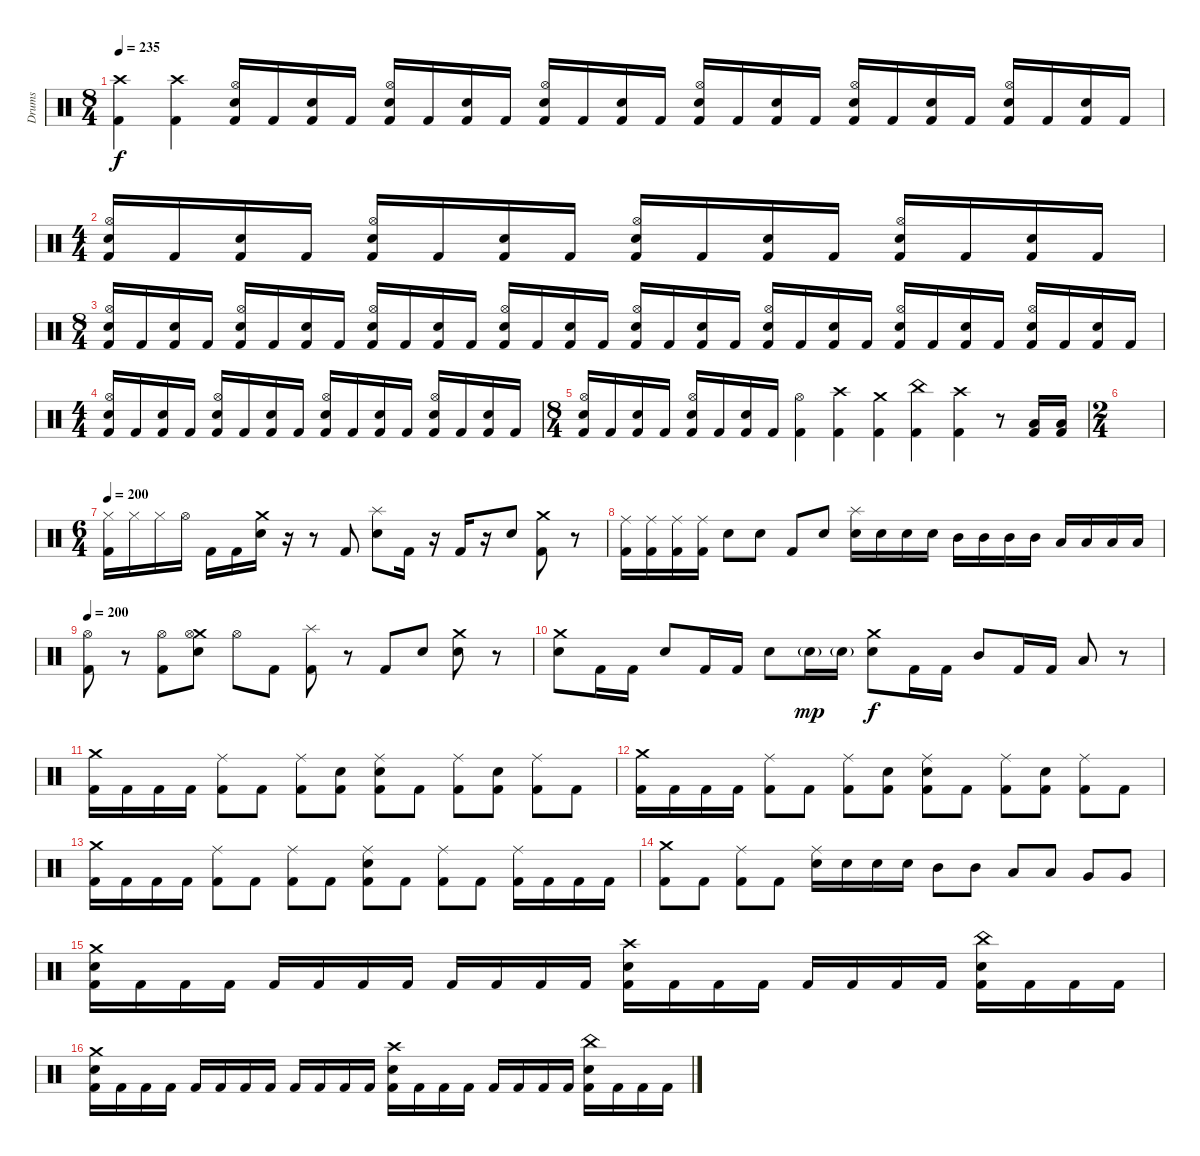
\track ("Drums" "Drums") {instrument percussion}
\staff {score}
\articulation defaults
\ts (8 4)
\tempo 235
\clef neutral
\ks c
("Crash high (hit)" "Kick (hit) 2").4{dy f} ("Crash high (hit)" "Kick (hit) 2").4 ("Hi-Hat (open)" "Electric Snare (hit)" "Kick (hit) 2").16 "Kick (hit) 2".16 ("Electric Snare (hit)" "Kick (hit) 2").16 "Kick (hit) 2".16 ("Hi-Hat (open)" "Electric Snare (hit)" "Kick (hit) 2").16 "Kick (hit) 2".16 ("Electric Snare (hit)" "Kick (hit) 2").16 "Kick (hit) 2".16 ("Hi-Hat (open)" "Electric Snare (hit)" "Kick (hit) 2").16 "Kick (hit) 2".16 ("Electric Snare (hit)" "Kick (hit) 2").16 "Kick (hit) 2".16 ("Hi-Hat (open)" "Electric Snare (hit)" "Kick (hit) 2").16 "Kick (hit) 2".16 ("Electric Snare (hit)" "Kick (hit) 2").16 "Kick (hit) 2".16 ("Hi-Hat (open)" "Electric Snare (hit)" "Kick (hit) 2").16 "Kick (hit) 2".16 ("Electric Snare (hit)" "Kick (hit) 2").16 "Kick (hit) 2".16 ("Hi-Hat (open)" "Electric Snare (hit)" "Kick (hit) 2").16 "Kick (hit) 2".16 ("Electric Snare (hit)" "Kick (hit) 2").16 "Kick (hit) 2".16 |
\ts (4 4)
("Hi-Hat (open)" "Electric Snare (hit)" "Kick (hit) 2").16 "Kick (hit) 2".16 ("Electric Snare (hit)" "Kick (hit) 2").16 "Kick (hit) 2".16 ("Hi-Hat (open)" "Electric Snare (hit)" "Kick (hit) 2").16 "Kick (hit) 2".16 ("Electric Snare (hit)" "Kick (hit) 2").16 "Kick (hit) 2".16 ("Hi-Hat (open)" "Electric Snare (hit)" "Kick (hit) 2").16 "Kick (hit) 2".16 ("Electric Snare (hit)" "Kick (hit) 2").16 "Kick (hit) 2".16 ("Hi-Hat (open)" "Electric Snare (hit)" "Kick (hit) 2").16 "Kick (hit) 2".16 ("Electric Snare (hit)" "Kick (hit) 2").16 "Kick (hit) 2".16 |
\ts (8 4)
("Hi-Hat (open)" "Electric Snare (hit)" "Kick (hit) 2").16 "Kick (hit) 2".16 ("Electric Snare (hit)" "Kick (hit) 2").16 "Kick (hit) 2".16 ("Hi-Hat (open)" "Electric Snare (hit)" "Kick (hit) 2").16 "Kick (hit) 2".16 ("Electric Snare (hit)" "Kick (hit) 2").16 "Kick (hit) 2".16 ("Hi-Hat (open)" "Electric Snare (hit)" "Kick (hit) 2").16 "Kick (hit) 2".16 ("Electric Snare (hit)" "Kick (hit) 2").16 "Kick (hit) 2".16 ("Hi-Hat (open)" "Electric Snare (hit)" "Kick (hit) 2").16 "Kick (hit) 2".16 ("Electric Snare (hit)" "Kick (hit) 2").16 "Kick (hit) 2".16 ("Hi-Hat (open)" "Electric Snare (hit)" "Kick (hit) 2").16 "Kick (hit) 2".16 ("Electric Snare (hit)" "Kick (hit) 2").16 "Kick (hit) 2".16 ("Hi-Hat (open)" "Electric Snare (hit)" "Kick (hit) 2").16 "Kick (hit) 2".16 ("Electric Snare (hit)" "Kick (hit) 2").16 "Kick (hit) 2".16 ("Hi-Hat (open)" "Electric Snare (hit)" "Kick (hit) 2").16 "Kick (hit) 2".16 ("Electric Snare (hit)" "Kick (hit) 2").16 "Kick (hit) 2".16 ("Hi-Hat (open)" "Electric Snare (hit)" "Kick (hit) 2").16 "Kick (hit) 2".16 ("Electric Snare (hit)" "Kick (hit) 2").16 "Kick (hit) 2".16 |
\ts (4 4)
("Hi-Hat (open)" "Electric Snare (hit)" "Kick (hit) 2").16 "Kick (hit) 2".16 ("Electric Snare (hit)" "Kick (hit) 2").16 "Kick (hit) 2".16 ("Hi-Hat (open)" "Electric Snare (hit)" "Kick (hit) 2").16 "Kick (hit) 2".16 ("Electric Snare (hit)" "Kick (hit) 2").16 "Kick (hit) 2".16 ("Hi-Hat (open)" "Electric Snare (hit)" "Kick (hit) 2").16 "Kick (hit) 2".16 ("Electric Snare (hit)" "Kick (hit) 2").16 "Kick (hit) 2".16 ("Hi-Hat (open)" "Electric Snare (hit)" "Kick (hit) 2").16 "Kick (hit) 2".16 ("Electric Snare (hit)" "Kick (hit) 2").16 "Kick (hit) 2".16 |
\ts (8 4)
("Hi-Hat (open)" "Electric Snare (hit)" "Kick (hit) 2").16 "Kick (hit) 2".16 ("Electric Snare (hit)" "Kick (hit) 2").16 "Kick (hit) 2".16 ("Hi-Hat (open)" "Electric Snare (hit)" "Kick (hit) 2").16 "Kick (hit) 2".16 ("Electric Snare (hit)" "Kick (hit) 2").16 "Kick (hit) 2".16 ("Hi-Hat (open)" "Kick (hit) 2").4 ("Crash high (hit)" "Kick (hit) 2").4 ("Crash medium (hit)" "Kick (hit) 2").4 ("China (hit)" "Kick (hit) 2").4 ("Crash high (hit)" "Kick (hit) 2").4 r.8 ("Low Floor Tom (hit)" "Kick (hit) 2").16 ("Low Floor Tom (hit)" "Kick (hit) 2").16 |
\ts (2 4)
|
\ts (6 4)
\tempo 200
("Hi-Hat (closed)" "Kick (hit) 2").16 "Hi-Hat (closed)".16 "Hi-Hat (closed)".16 "Hi-Hat (open)".16 "Kick (hit) 2".16 "Kick (hit) 2".16 ("Crash medium (hit)" "Electric Snare (hit)").16 r.16 r.8 "Kick (hit) 2".8 ("Splash (hit)" "Electric Snare (hit)").8 "Kick (hit) 2".16 r.16 "Kick (hit) 2".16 r.16 "Electric Snare (hit)".8 ("Crash medium (hit)" "Kick (hit) 2").8 r.8 |
("Ride (middle)" "Kick (hit) 2").16 ("Ride (middle)" "Kick (hit) 2").16 ("Ride (middle)" "Kick (hit) 2").16 ("Ride (middle)" "Kick (hit) 2").16 "Electric Snare (hit)".8 "Electric Snare (hit)".8 "Kick (hit) 2".8 "Electric Snare (hit)".8 ("Splash (hit)" "Electric Snare (hit)").16 "Electric Snare (hit)".16 "Electric Snare (hit)".16 "Electric Snare (hit)".16 "Mid Tom (hit)".16 "Mid Tom (hit)".16 "Mid Tom (hit)".16 "Mid Tom (hit)".16 "Low Tom (hit)".16 "Low Tom (hit)".16 "Low Tom (hit)".16 "Low Tom (hit)".16 |
\tempo 200
("Hi-Hat (open)" "Kick (hit) 2").8 r.8 ("Hi-Hat (open)" "Kick (hit) 2").8 ("Crash medium (hit)" "Hi-Hat (open)" "Electric Snare (hit)").8 "Hi-Hat (open)".8 "Kick (hit) 2".8 ("Splash (hit)" "Kick (hit) 2").8 r.8 "Kick (hit) 2".8 "Electric Snare (hit)".8 ("Crash medium (hit)" "Electric Snare (hit)").8 r.8 |
("Crash medium (hit)" "Electric Snare (hit)").8 "Kick (hit) 2".16 "Kick (hit) 2".16 "Electric Snare (hit)".8 "Kick (hit) 2".16 "Kick (hit) 2".16 "Electric Snare (hit)".8 "Electric Snare (hit)"{g}.16{dy mp} "Electric Snare (hit)"{g}.16 ("Crash medium (hit)" "Electric Snare (hit)").8{dy f} "Kick (hit) 2".16 "Kick (hit) 2".16 "Mid Tom (hit)".8 "Kick (hit) 2".16 "Kick (hit) 2".16 "Low Tom (hit)".8 r.8 |
("Crash medium (hit)" "Kick (hit) 2").16 "Kick (hit) 2".16 "Kick (hit) 2".16 "Kick (hit) 2".16 ("Ride (middle)" "Kick (hit) 2").8 "Kick (hit) 2".8 ("Ride (middle)" "Kick (hit) 2").8 ("Electric Snare (hit)" "Kick (hit) 2").8 ("Ride (middle)" "Electric Snare (hit)" "Kick (hit) 2").8 "Kick (hit) 2".8 ("Ride (middle)" "Kick (hit) 2").8 ("Electric Snare (hit)" "Kick (hit) 2").8 ("Ride (middle)" "Kick (hit) 2").8 "Kick (hit) 2".8 |
("Crash medium (hit)" "Kick (hit) 2").16 "Kick (hit) 2".16 "Kick (hit) 2".16 "Kick (hit) 2".16 ("Ride (middle)" "Kick (hit) 2").8 "Kick (hit) 2".8 ("Ride (middle)" "Kick (hit) 2").8 ("Electric Snare (hit)" "Kick (hit) 2").8 ("Ride (middle)" "Electric Snare (hit)" "Kick (hit) 2").8 "Kick (hit) 2".8 ("Ride (middle)" "Kick (hit) 2").8 ("Electric Snare (hit)" "Kick (hit) 2").8 ("Ride (middle)" "Kick (hit) 2").8 "Kick (hit) 2".8 |
("Crash medium (hit)" "Kick (hit) 2").16 "Kick (hit) 2".16 "Kick (hit) 2".16 "Kick (hit) 2".16 ("Ride (middle)" "Kick (hit) 2").8 "Kick (hit) 2".8 ("Ride (middle)" "Kick (hit) 2").8 "Kick (hit) 2".8 ("Ride (middle)" "Electric Snare (hit)" "Kick (hit) 2").8 "Kick (hit) 2".8 ("Ride (middle)" "Kick (hit) 2").8 "Kick (hit) 2".8 ("Ride (middle)" "Kick (hit) 2").16 "Kick (hit) 2".16 "Kick (hit) 2".16 "Kick (hit) 2".16 |
("Crash medium (hit)" "Kick (hit) 2").8 "Kick (hit) 2".8 ("Ride (middle)" "Kick (hit) 2").8 "Kick (hit) 2".8 ("Ride (middle)" "Electric Snare (hit)").16 "Electric Snare (hit)".16 "Electric Snare (hit)".16 "Electric Snare (hit)".16 "Mid Tom (hit)".8 "Mid Tom (hit)".8 "Low Tom (hit)".8 "Low Tom (hit)".8 "Very Low Tom (hit)".8 "Very Low Tom (hit)".8 |
("Crash medium (hit)" "Electric Snare (hit)" "Kick (hit) 2").16 "Kick (hit) 2".16 "Kick (hit) 2".16 "Kick (hit) 2".16 "Kick (hit) 2".16 "Kick (hit) 2".16 "Kick (hit) 2".16 "Kick (hit) 2".16 "Kick (hit) 2".16 "Kick (hit) 2".16 "Kick (hit) 2".16 "Kick (hit) 2".16 ("Crash high (hit)" "Electric Snare (hit)" "Kick (hit) 2").16 "Kick (hit) 2".16 "Kick (hit) 2".16 "Kick (hit) 2".16 "Kick (hit) 2".16 "Kick (hit) 2".16 "Kick (hit) 2".16 "Kick (hit) 2".16 ("China (hit)" "Electric Snare (hit)" "Kick (hit) 2").16 "Kick (hit) 2".16 "Kick (hit) 2".16 "Kick (hit) 2".16 |
("Crash medium (hit)" "Electric Snare (hit)" "Kick (hit) 2").16 "Kick (hit) 2".16 "Kick (hit) 2".16 "Kick (hit) 2".16 "Kick (hit) 2".16 "Kick (hit) 2".16 "Kick (hit) 2".16 "Kick (hit) 2".16 "Kick (hit) 2".16 "Kick (hit) 2".16 "Kick (hit) 2".16 "Kick (hit) 2".16 ("Crash high (hit)" "Electric Snare (hit)" "Kick (hit) 2").16 "Kick (hit) 2".16 "Kick (hit) 2".16 "Kick (hit) 2".16 "Kick (hit) 2".16 "Kick (hit) 2".16 "Kick (hit) 2".16 "Kick (hit) 2".16 ("China (hit)" "Electric Snare (hit)" "Kick (hit) 2").16 "Kick (hit) 2".16 "Kick (hit) 2".16 "Kick (hit) 2".16
